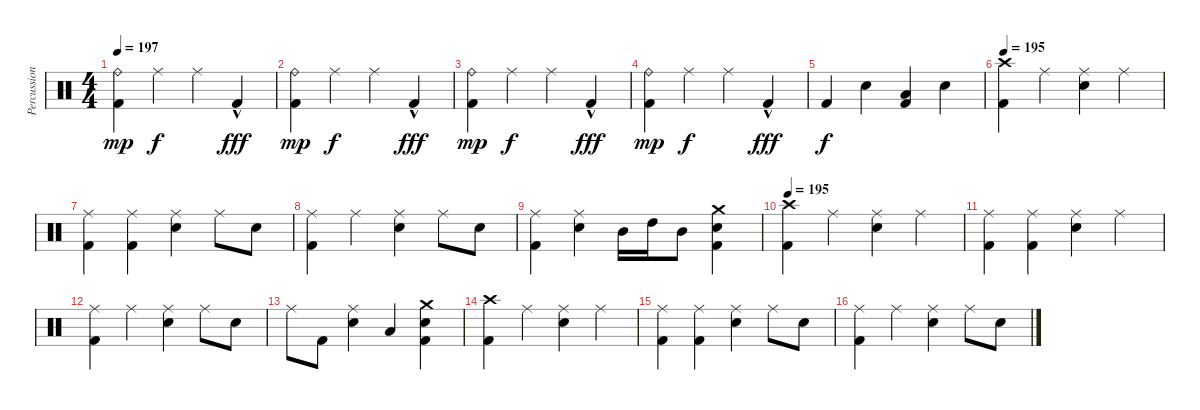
\track ("Percussion" "Percussion") {instrument percussion}
\staff {score}
\articulation defaults
\ts (4 4)
\tempo 197
\clef neutral
\ks c
("Ride (bell)" "Kick (hit) 2").4{dy mp} "Ride (middle)".4{dy f} "Ride (middle)".4 "Kick (hit) 2"{hac}.4{dy fff} |
("Ride (bell)" "Kick (hit) 2").4{dy mp} "Ride (middle)".4{dy f} "Ride (middle)".4 "Kick (hit) 2"{hac}.4{dy fff} |
("Ride (bell)" "Kick (hit) 2").4{dy mp} "Ride (middle)".4{dy f} "Ride (middle)".4 "Kick (hit) 2"{hac}.4{dy fff} |
("Ride (bell)" "Kick (hit) 2").4{dy mp} "Ride (middle)".4{dy f} "Ride (middle)".4 "Kick (hit) 2"{hac}.4{dy fff} |
"Kick (hit) 2".4{dy f} "Snare (hit) 2".4 ("Low Tom (hit)" "Kick (hit) 2").4 "Snare (hit) 2".4 |
\tempo 195
("Crash high (hit)" "Kick (hit) 2").4 "Ride (middle)".4 ("Ride (middle)" "Snare (hit) 2").4 "Ride (middle)".4 |
("Ride (middle)" "Kick (hit) 2").4 ("Ride (middle)" "Kick (hit) 2").4 ("Ride (middle)" "Snare (hit) 2").4 "Ride (middle)".8 "Snare (hit) 2".8 |
("Ride (middle)" "Kick (hit) 2").4 "Ride (middle)".4 ("Ride (middle)" "Snare (hit) 2").4 "Ride (middle)".8 "Snare (hit) 2".8 |
("Ride (middle)" "Kick (hit) 2").4 ("Ride (middle)" "Snare (hit) 2").4 "Mid Tom (hit)".16 "High Tom (hit)".16 "Mid Tom (hit)".8 ("Crash medium (hit)" "Snare (hit) 2" "Kick (hit) 2").4 |
\tempo 195
("Crash high (hit)" "Kick (hit) 2").4 "Ride (middle)".4 ("Ride (middle)" "Snare (hit) 2").4 "Ride (middle)".4 |
("Ride (middle)" "Kick (hit) 2").4 ("Ride (middle)" "Kick (hit) 2").4 ("Ride (middle)" "Snare (hit) 2").4 "Ride (middle)".4 |
("Ride (middle)" "Kick (hit) 2").4 "Ride (middle)".4 ("Ride (middle)" "Snare (hit) 2").4 "Ride (middle)".8 "Snare (hit) 2".8 |
"Ride (middle)".8 "Kick (hit) 2".8 ("Ride (middle)" "Snare (hit) 2").4 "Low Tom (hit)".4 ("Crash medium (hit)" "Snare (hit) 2" "Kick (hit) 2").4 |
("Crash high (hit)" "Kick (hit) 2").4 "Ride (middle)".4 ("Ride (middle)" "Snare (hit) 2").4 "Ride (middle)".4 |
("Ride (middle)" "Kick (hit) 2").4 ("Ride (middle)" "Kick (hit) 2").4 ("Ride (middle)" "Snare (hit) 2").4 "Ride (middle)".8 "Snare (hit) 2".8 |
("Ride (middle)" "Kick (hit) 2").4 "Ride (middle)".4 ("Ride (middle)" "Snare (hit) 2").4 "Ride (middle)".8 "Snare (hit) 2".8
